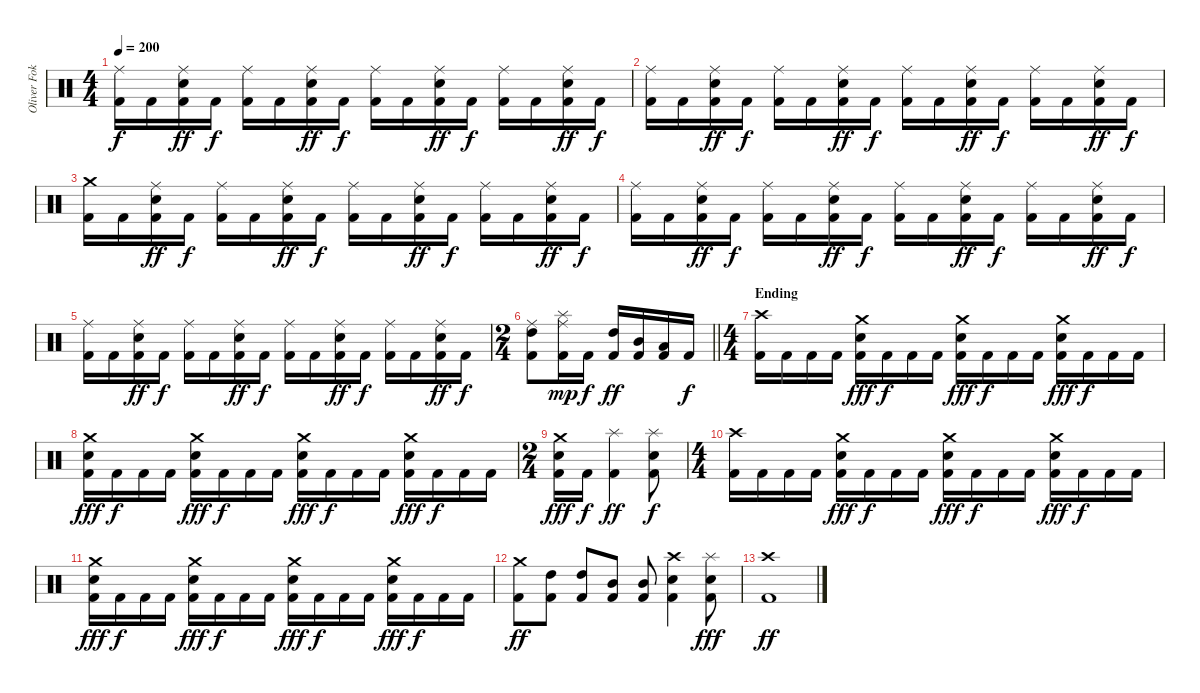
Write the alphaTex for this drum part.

\track ("Oliver Fokin" "Oliver Fok") {instrument percussion}
\staff {score}
\articulation defaults
\ts (4 4)
\tempo 200
\clef neutral
\ks c
("Ride (middle)" "Kick (hit) 2").16{dy f} "Kick (hit) 2".16 ("Ride (middle)" "Electric Snare (hit)" "Kick (hit) 2").16{dy ff} "Kick (hit) 2".16{dy f} ("Ride (middle)" "Kick (hit) 2").16 "Kick (hit) 2".16 ("Ride (middle)" "Electric Snare (hit)" "Kick (hit) 2").16{dy ff} "Kick (hit) 2".16{dy f} ("Ride (middle)" "Kick (hit) 2").16 "Kick (hit) 2".16 ("Ride (middle)" "Electric Snare (hit)" "Kick (hit) 2").16{dy ff} "Kick (hit) 2".16{dy f} ("Ride (middle)" "Kick (hit) 2").16 "Kick (hit) 2".16 ("Ride (middle)" "Electric Snare (hit)" "Kick (hit) 2").16{dy ff} "Kick (hit) 2".16{dy f} |
("Ride (middle)" "Kick (hit) 2").16 "Kick (hit) 2".16 ("Ride (middle)" "Electric Snare (hit)" "Kick (hit) 2").16{dy ff} "Kick (hit) 2".16{dy f} ("Ride (middle)" "Kick (hit) 2").16 "Kick (hit) 2".16 ("Ride (middle)" "Electric Snare (hit)" "Kick (hit) 2").16{dy ff} "Kick (hit) 2".16{dy f} ("Ride (middle)" "Kick (hit) 2").16 "Kick (hit) 2".16 ("Ride (middle)" "Electric Snare (hit)" "Kick (hit) 2").16{dy ff} "Kick (hit) 2".16{dy f} ("Ride (middle)" "Kick (hit) 2").16 "Kick (hit) 2".16 ("Ride (middle)" "Electric Snare (hit)" "Kick (hit) 2").16{dy ff} "Kick (hit) 2".16{dy f} |
("Crash medium (hit)" "Kick (hit) 2").16 "Kick (hit) 2".16 ("Ride (middle)" "Electric Snare (hit)" "Kick (hit) 2").16{dy ff} "Kick (hit) 2".16{dy f} ("Ride (middle)" "Kick (hit) 2").16 "Kick (hit) 2".16 ("Ride (middle)" "Electric Snare (hit)" "Kick (hit) 2").16{dy ff} "Kick (hit) 2".16{dy f} ("Ride (middle)" "Kick (hit) 2").16 "Kick (hit) 2".16 ("Ride (middle)" "Electric Snare (hit)" "Kick (hit) 2").16{dy ff} "Kick (hit) 2".16{dy f} ("Ride (middle)" "Kick (hit) 2").16 "Kick (hit) 2".16 ("Ride (middle)" "Electric Snare (hit)" "Kick (hit) 2").16{dy ff} "Kick (hit) 2".16{dy f} |
("Ride (middle)" "Kick (hit) 2").16 "Kick (hit) 2".16 ("Ride (middle)" "Electric Snare (hit)" "Kick (hit) 2").16{dy ff} "Kick (hit) 2".16{dy f} ("Ride (middle)" "Kick (hit) 2").16 "Kick (hit) 2".16 ("Ride (middle)" "Electric Snare (hit)" "Kick (hit) 2").16{dy ff} "Kick (hit) 2".16{dy f} ("Ride (middle)" "Kick (hit) 2").16 "Kick (hit) 2".16 ("Ride (middle)" "Electric Snare (hit)" "Kick (hit) 2").16{dy ff} "Kick (hit) 2".16{dy f} ("Ride (middle)" "Kick (hit) 2").16 "Kick (hit) 2".16 ("Ride (middle)" "Electric Snare (hit)" "Kick (hit) 2").16{dy ff} "Kick (hit) 2".16{dy f} |
("Ride (middle)" "Kick (hit) 2").16 "Kick (hit) 2".16 ("Ride (middle)" "Electric Snare (hit)" "Kick (hit) 2").16{dy ff} "Kick (hit) 2".16{dy f} ("Ride (middle)" "Kick (hit) 2").16 "Kick (hit) 2".16 ("Ride (middle)" "Electric Snare (hit)" "Kick (hit) 2").16{dy ff} "Kick (hit) 2".16{dy f} ("Ride (middle)" "Kick (hit) 2").16 "Kick (hit) 2".16 ("Ride (middle)" "Electric Snare (hit)" "Kick (hit) 2").16{dy ff} "Kick (hit) 2".16{dy f} ("Ride (middle)" "Kick (hit) 2").16 "Kick (hit) 2".16 ("Ride (middle)" "Electric Snare (hit)" "Kick (hit) 2").16{dy ff} "Kick (hit) 2".16{dy f} |
\ts (2 4)
\barLineRight lightlight
("Ride (middle)" "High Tom (hit)" "Kick (hit) 2").8 ("Splash (hit)" "Ride (middle)" "Kick (hit) 2").16{dy mp} "Kick (hit) 2".16{dy f} ("High Tom (hit)" "Kick (hit) 2").16{dy ff} ("Mid Tom (hit)" "Kick (hit) 2").16 ("Low Tom (hit)" "Kick (hit) 2").16 "Kick (hit) 2".16{dy f} |
\ts (4 4)
\section ("" "Ending")
("Crash high (hit)" "Kick (hit) 2").16 "Kick (hit) 2".16 "Kick (hit) 2".16 "Kick (hit) 2".16 ("Crash medium (hit)" "Electric Snare (hit)" "Kick (hit) 2").16{dy fff} "Kick (hit) 2".16{dy f} "Kick (hit) 2".16 "Kick (hit) 2".16 ("Crash medium (hit)" "Electric Snare (hit)" "Kick (hit) 2").16{dy fff} "Kick (hit) 2".16{dy f} "Kick (hit) 2".16 "Kick (hit) 2".16 ("Crash medium (hit)" "Electric Snare (hit)" "Kick (hit) 2").16{dy fff} "Kick (hit) 2".16{dy f} "Kick (hit) 2".16 "Kick (hit) 2".16 |
("Crash medium (hit)" "Electric Snare (hit)" "Kick (hit) 2").16{dy fff} "Kick (hit) 2".16{dy f} "Kick (hit) 2".16 "Kick (hit) 2".16 ("Crash medium (hit)" "Electric Snare (hit)" "Kick (hit) 2").16{dy fff} "Kick (hit) 2".16{dy f} "Kick (hit) 2".16 "Kick (hit) 2".16 ("Crash medium (hit)" "Electric Snare (hit)" "Kick (hit) 2").16{dy fff} "Kick (hit) 2".16{dy f} "Kick (hit) 2".16 "Kick (hit) 2".16 ("Crash medium (hit)" "Electric Snare (hit)" "Kick (hit) 2").16{dy fff} "Kick (hit) 2".16{dy f} "Kick (hit) 2".16 "Kick (hit) 2".16 |
\ts (2 4)
("Crash medium (hit)" "Electric Snare (hit)" "Kick (hit) 2").16{dy fff} "Kick (hit) 2".16{dy f} ("Splash (hit)" "Kick (hit) 2").4{dy ff} ("Splash (hit)" "Electric Snare (hit)" "Kick (hit) 2").8{dy f} |
\ts (4 4)
("Crash high (hit)" "Kick (hit) 2").16 "Kick (hit) 2".16 "Kick (hit) 2".16 "Kick (hit) 2".16 ("Crash medium (hit)" "Electric Snare (hit)" "Kick (hit) 2").16{dy fff} "Kick (hit) 2".16{dy f} "Kick (hit) 2".16 "Kick (hit) 2".16 ("Crash medium (hit)" "Electric Snare (hit)" "Kick (hit) 2").16{dy fff} "Kick (hit) 2".16{dy f} "Kick (hit) 2".16 "Kick (hit) 2".16 ("Crash medium (hit)" "Electric Snare (hit)" "Kick (hit) 2").16{dy fff} "Kick (hit) 2".16{dy f} "Kick (hit) 2".16 "Kick (hit) 2".16 |
("Crash medium (hit)" "Electric Snare (hit)" "Kick (hit) 2").16{dy fff} "Kick (hit) 2".16{dy f} "Kick (hit) 2".16 "Kick (hit) 2".16 ("Crash medium (hit)" "Electric Snare (hit)" "Kick (hit) 2").16{dy fff} "Kick (hit) 2".16{dy f} "Kick (hit) 2".16 "Kick (hit) 2".16 ("Crash medium (hit)" "Electric Snare (hit)" "Kick (hit) 2").16{dy fff} "Kick (hit) 2".16{dy f} "Kick (hit) 2".16 "Kick (hit) 2".16 ("Crash medium (hit)" "Electric Snare (hit)" "Kick (hit) 2").16{dy fff} "Kick (hit) 2".16{dy f} "Kick (hit) 2".16 "Kick (hit) 2".16 |
("Crash medium (hit)" "Kick (hit) 2").8{dy ff} ("High Tom (hit)" "Kick (hit) 2").8 ("High Tom (hit)" "Kick (hit) 2").8 ("Mid Tom (hit)" "Kick (hit) 2").8 ("Mid Tom (hit)" "Kick (hit) 2").8 ("Crash high (hit)" "Electric Snare (hit)" "Kick (hit) 2").4 ("Splash (hit)" "Electric Snare (hit)" "Kick (hit) 2").8{dy fff} |
("Crash high (hit)" "Kick (hit) 2").1{dy ff}
